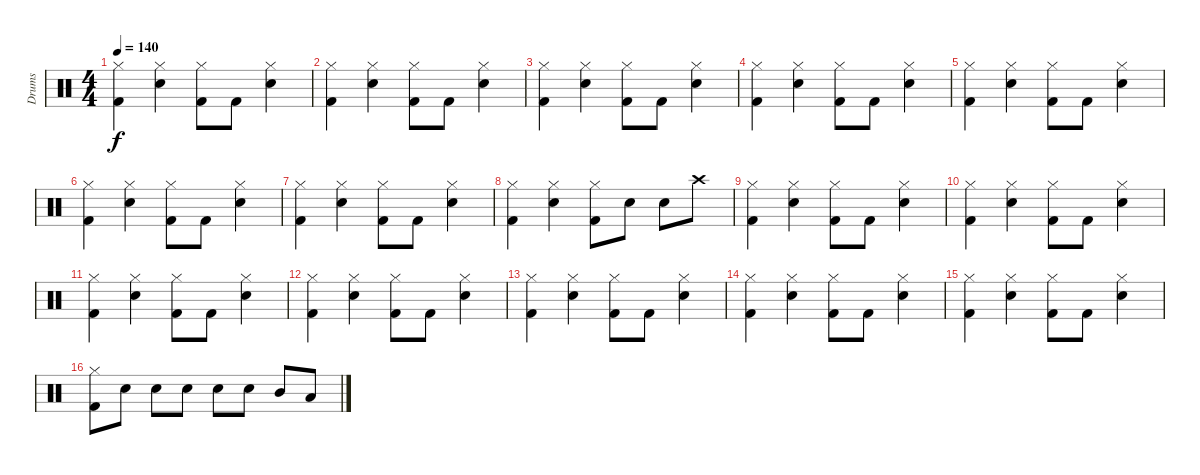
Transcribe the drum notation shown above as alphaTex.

\track ("Drums" "Drums") {instrument percussion}
\staff {score}
\articulation defaults
\ts (4 4)
\tempo 140
\clef neutral
\ks c
("Hi-Hat (closed)" "Kick (hit) 2").4{dy f} ("Hi-Hat (closed)" "Electric Snare (hit)").4 ("Hi-Hat (closed)" "Kick (hit) 2").8 "Kick (hit) 2".8 ("Hi-Hat (closed)" "Electric Snare (hit)").4 |
("Hi-Hat (closed)" "Kick (hit) 2").4 ("Hi-Hat (closed)" "Electric Snare (hit)").4 ("Hi-Hat (closed)" "Kick (hit) 2").8 "Kick (hit) 2".8 ("Hi-Hat (closed)" "Electric Snare (hit)").4 |
("Hi-Hat (closed)" "Kick (hit) 2").4 ("Hi-Hat (closed)" "Electric Snare (hit)").4 ("Hi-Hat (closed)" "Kick (hit) 2").8 "Kick (hit) 2".8 ("Hi-Hat (closed)" "Electric Snare (hit)").4 |
("Hi-Hat (closed)" "Kick (hit) 2").4 ("Hi-Hat (closed)" "Electric Snare (hit)").4 ("Hi-Hat (closed)" "Kick (hit) 2").8 "Kick (hit) 2".8 ("Hi-Hat (closed)" "Electric Snare (hit)").4 |
("Hi-Hat (closed)" "Kick (hit) 2").4 ("Hi-Hat (closed)" "Electric Snare (hit)").4 ("Hi-Hat (closed)" "Kick (hit) 2").8 "Kick (hit) 2".8 ("Hi-Hat (closed)" "Electric Snare (hit)").4 |
("Hi-Hat (closed)" "Kick (hit) 2").4 ("Hi-Hat (closed)" "Electric Snare (hit)").4 ("Hi-Hat (closed)" "Kick (hit) 2").8 "Kick (hit) 2".8 ("Hi-Hat (closed)" "Electric Snare (hit)").4 |
("Hi-Hat (closed)" "Kick (hit) 2").4 ("Hi-Hat (closed)" "Electric Snare (hit)").4 ("Hi-Hat (closed)" "Kick (hit) 2").8 "Kick (hit) 2".8 ("Hi-Hat (closed)" "Electric Snare (hit)").4 |
("Hi-Hat (closed)" "Kick (hit) 2").4 ("Hi-Hat (closed)" "Electric Snare (hit)").4 ("Hi-Hat (closed)" "Kick (hit) 2").8 "Electric Snare (hit)".8 "Electric Snare (hit)".8 "Crash high (hit)".8 |
("Hi-Hat (closed)" "Kick (hit) 2").4 ("Hi-Hat (closed)" "Electric Snare (hit)").4 ("Hi-Hat (closed)" "Kick (hit) 2").8 "Kick (hit) 2".8 ("Hi-Hat (closed)" "Electric Snare (hit)").4 |
("Hi-Hat (closed)" "Kick (hit) 2").4 ("Hi-Hat (closed)" "Electric Snare (hit)").4 ("Hi-Hat (closed)" "Kick (hit) 2").8 "Kick (hit) 2".8 ("Hi-Hat (closed)" "Electric Snare (hit)").4 |
("Hi-Hat (closed)" "Kick (hit) 2").4 ("Hi-Hat (closed)" "Electric Snare (hit)").4 ("Hi-Hat (closed)" "Kick (hit) 2").8 "Kick (hit) 2".8 ("Hi-Hat (closed)" "Electric Snare (hit)").4 |
("Hi-Hat (closed)" "Kick (hit) 2").4 ("Hi-Hat (closed)" "Electric Snare (hit)").4 ("Hi-Hat (closed)" "Kick (hit) 2").8 "Kick (hit) 2".8 ("Hi-Hat (closed)" "Electric Snare (hit)").4 |
("Hi-Hat (closed)" "Kick (hit) 2").4 ("Hi-Hat (closed)" "Electric Snare (hit)").4 ("Hi-Hat (closed)" "Kick (hit) 2").8 "Kick (hit) 2".8 ("Hi-Hat (closed)" "Electric Snare (hit)").4 |
("Hi-Hat (closed)" "Kick (hit) 2").4 ("Hi-Hat (closed)" "Electric Snare (hit)").4 ("Hi-Hat (closed)" "Kick (hit) 2").8 "Kick (hit) 2".8 ("Hi-Hat (closed)" "Electric Snare (hit)").4 |
("Hi-Hat (closed)" "Kick (hit) 2").4 ("Hi-Hat (closed)" "Electric Snare (hit)").4 ("Hi-Hat (closed)" "Kick (hit) 2").8 "Kick (hit) 2".8 ("Hi-Hat (closed)" "Electric Snare (hit)").4 |
("Hi-Hat (closed)" "Kick (hit) 2").8 "Electric Snare (hit)".8 "Electric Snare (hit)".8 "Electric Snare (hit)".8 "Electric Snare (hit)".8 "Electric Snare (hit)".8 "Mid Tom (hit)".8 "Low Tom (hit)".8
